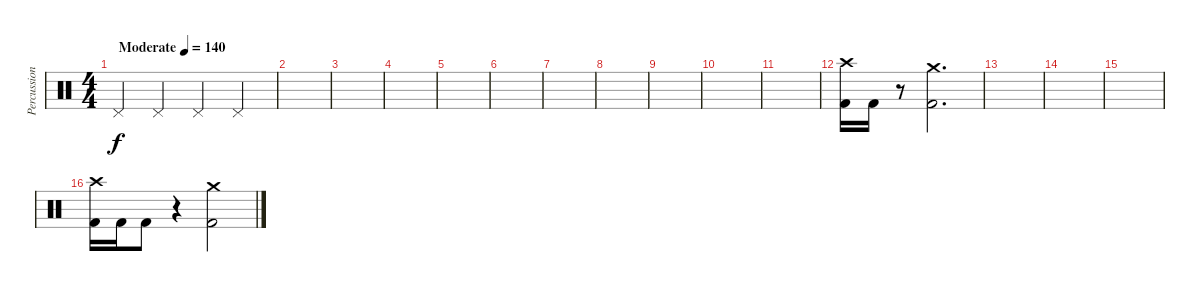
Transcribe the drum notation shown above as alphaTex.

\track ("Percussion" "Percussion") {instrument percussion}
\staff {score}
\articulation defaults
\ts (4 4)
\tempo (140 "Moderate")
\clef neutral
\ks c "Pedal Hi-Hat (hit)".4{dy f} "Pedal Hi-Hat (hit)".4 "Pedal Hi-Hat (hit)".4 "Pedal Hi-Hat (hit)".4
|
|
|
|
|
|
|
|
|
|
|
("Crash high (hit)" "Kick (hit) 2").16 "Kick (hit) 2".16 r.8 ("Crash medium (hit)" "Kick (hit) 2").2{d} |
|
|
|
("Crash high (hit)" "Kick (hit) 2").16 "Kick (hit) 2".16 "Kick (hit) 2".8 r.4 ("Crash medium (hit)" "Kick (hit) 2").2
